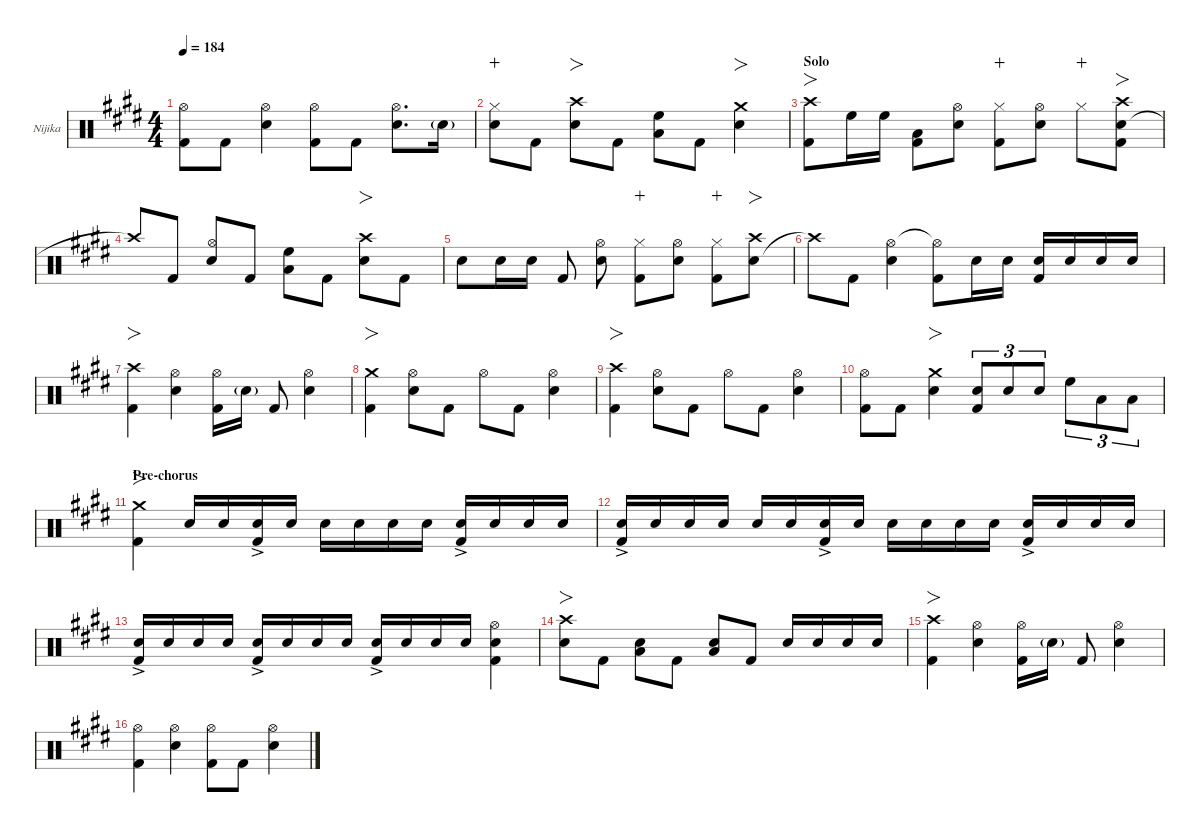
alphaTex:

\defaultSystemsLayout 4
\hideDynamics
\bracketExtendMode nobrackets
\firstSystemTrackNameOrientation horizontal
\track ("Nijika" "Nijika") {defaultSystemsLayout 4 instrument percussion}
\staff {score}
\articulation defaults
\ts (4 4)
\tempo 184
\clef neutral
\ks e
("Hi-Hat (open)"{acc forcenatural} "Kick (hit) 2"{acc forcenatural}).8{dy f beam Down} "Kick (hit) 2"{acc forcenatural}.8{beam Down} ("Hi-Hat (open)"{acc forcenatural} "Snare (hit) 2"{acc forcenatural}).4{beam Down} ("Hi-Hat (open)"{acc forcenatural} "Kick (hit) 2"{acc forcenatural}).8{beam Down} "Kick (hit) 2"{acc forcenatural}.8{beam Down} ("Hi-Hat (open)"{acc forcenatural} "Snare (hit) 2"{acc forcenatural}).8{d beam Down} "Snare (hit) 2"{g acc forcenatural}.16{dy mf beam Down} |
("Hi-Hat (closed)"{acc forcenatural} "Snare (hit) 2"{acc forcenatural}).8{dy f wahc beam Down} "Kick (hit) 2"{acc forcenatural}.8{beam Down} ("Snare (hit) 2"{acc forcenatural} "Crash high (hit)"{acc forcenatural}).8{fo beam Down} "Kick (hit) 2"{acc forcenatural}.8{beam Down} ("High Floor Tom (hit)"{acc forcenatural} "Low Tom (hit)"{acc forcenatural}).8{beam Down} "Kick (hit) 2"{acc forcenatural}.8{beam Down} ("Snare (hit) 2"{acc forcenatural} "Crash medium (hit)"{acc forcenatural}).4{fo beam Down} |
\section ("" "Solo")
("Crash high (hit)"{acc forcenatural} "Kick (hit) 2"{acc forcenatural}).8{fo beam Down} "High Floor Tom (hit)"{acc forcenatural}.16{beam Down} "High Floor Tom (hit)"{acc forcenatural}.16{beam Down beam split} ("Low Tom (hit)"{acc forcenatural} "Kick (hit) 2"{acc forcenatural}).8{dy mf beam Down} ("Snare (hit) 2"{acc forcenatural} "Hi-Hat (open)"{acc forcenatural}).8{dy f beam Down} ("Hi-Hat (closed)"{acc forcenatural} "Kick (hit) 2"{acc forcenatural}).8{dy mp wahc beam Down} ("Hi-Hat (open)"{acc forcenatural} "Snare (hit) 2"{acc forcenatural}).8{dy f beam Down} "Hi-Hat (closed)"{acc forcenatural}.8{dy mp wahc beam Down} ("Snare (hit) 2"{acc forcenatural} "Crash high (hit)"{acc forcenatural} "Kick (hit) 2"{acc forcenatural}).8{fo dy f beam Down} |
"Crash high (hit)"{t acc forcenatural}.8{beam Up} "Kick (hit) 2"{acc forcenatural}.8{beam Up} ("Hi-Hat (open)"{acc forcenatural} "Snare (hit) 2"{acc forcenatural}).8{beam Up} "Kick (hit) 2"{acc forcenatural}.8{beam Up} ("High Floor Tom (hit)"{acc forcenatural} "Low Tom (hit)"{acc forcenatural}).8{beam Down} "Kick (hit) 2"{acc forcenatural}.8{beam Down} ("Snare (hit) 2"{acc forcenatural} "Crash high (hit)"{acc forcenatural}).8{fo beam Down} "Kick (hit) 2"{acc forcenatural}.8{beam Down} |
"Snare (hit) 2"{acc forcenatural}.8{beam Down} "Snare (hit) 2"{acc forcenatural}.16{beam Down} "Snare (hit) 2"{acc forcenatural}.16{dy mf beam Down beam split} "Kick (hit) 2"{acc forcenatural}.8{dy f beam Up beam split} ("Snare (hit) 2"{acc forcenatural} "Hi-Hat (open)"{acc forcenatural}).8{beam Down} ("Hi-Hat (closed)"{acc forcenatural} "Kick (hit) 2"{acc forcenatural}).8{dy mp wahc beam Down} ("Hi-Hat (open)"{acc forcenatural} "Snare (hit) 2"{acc forcenatural}).8{dy f beam Down} ("Hi-Hat (closed)"{acc forcenatural} "Kick (hit) 2"{acc forcenatural}).8{dy mp wahc beam Down} ("Snare (hit) 2"{acc forcenatural} "Crash high (hit)"{acc forcenatural}).8{fo dy f beam Down} |
"Crash high (hit)"{t acc forcenatural}.8{beam Down} "Kick (hit) 2"{acc forcenatural}.8{beam Down} ("Hi-Hat (open)"{acc forcenatural} "Snare (hit) 2"{acc forcenatural}).4{beam Down} ("Hi-Hat (open)"{t acc forcenatural} "Kick (hit) 2"{acc forcenatural}).8{beam Down} "Snare (hit) 2"{acc forcenatural}.16{beam Down} "Snare (hit) 2"{acc forcenatural}.16{dy mf beam Down beam split} ("Snare (hit) 2"{acc forcenatural} "Kick (hit) 2"{acc forcenatural}).16{dy f beam Up} "Snare (hit) 2"{acc forcenatural}.16{dy mf beam Up} "Snare (hit) 2"{acc forcenatural}.16{dy f beam Up} "Snare (hit) 2"{acc forcenatural}.16{dy mf beam Up} |
("Crash high (hit)"{acc forcenatural} "Kick (hit) 2"{acc forcenatural}).4{fo dy f beam Down} ("Hi-Hat (open)"{acc forcenatural} "Snare (hit) 2"{acc forcenatural}).4{beam Down} ("Hi-Hat (open)"{acc forcenatural} "Kick (hit) 2"{acc forcenatural}).16{beam Down} "Snare (hit) 2"{g acc forcenatural}.16{dy mf beam Down beam split} "Kick (hit) 2"{acc forcenatural}.8{dy f beam Up} ("Hi-Hat (open)"{acc forcenatural} "Snare (hit) 2"{acc forcenatural}).4{beam Down} |
("Crash medium (hit)"{acc forcenatural} "Kick (hit) 2"{acc forcenatural}).4{fo beam Down} ("Hi-Hat (open)"{acc forcenatural} "Snare (hit) 2"{acc forcenatural}).8{beam Down} "Kick (hit) 2"{acc forcenatural}.8{beam Down} "Hi-Hat (open)"{acc forcenatural}.8{beam Down} "Kick (hit) 2"{acc forcenatural}.8{beam Down} ("Hi-Hat (open)"{acc forcenatural} "Snare (hit) 2"{acc forcenatural}).4{beam Down} |
("Crash high (hit)"{acc forcenatural} "Kick (hit) 2"{acc forcenatural}).4{fo beam Down} ("Hi-Hat (open)"{acc forcenatural} "Snare (hit) 2"{acc forcenatural}).8{beam Down} "Kick (hit) 2"{acc forcenatural}.8{beam Down} "Hi-Hat (open)"{acc forcenatural}.8{beam Down} "Kick (hit) 2"{acc forcenatural}.8{beam Down} ("Hi-Hat (open)"{acc forcenatural} "Snare (hit) 2"{acc forcenatural}).4{beam Down} |
("Hi-Hat (open)"{acc forcenatural} "Kick (hit) 2"{acc forcenatural}).8{beam Down} "Kick (hit) 2"{acc forcenatural}.8{beam Down} ("Crash medium (hit)"{acc forcenatural} "Snare (hit) 2"{acc forcenatural}).4{fo beam Down} ("Snare (hit) 2"{acc forcenatural} "Kick (hit) 2"{acc forcenatural}).8{tu (3 2) beam Up} "Snare (hit) 2"{acc forcenatural}.8{tu (3 2) dy mf beam Up} "Snare (hit) 2"{acc forcenatural}.8{tu (3 2) beam Up} "High Floor Tom (hit)"{acc forcenatural}.8{tu (3 2) dy f beam Down} "Low Tom (hit)"{acc forcenatural}.8{tu (3 2) beam Down} "Low Tom (hit)"{acc forcenatural}.8{tu (3 2) beam Down} |
\section ("" "Pre-chorus")
("Crash medium (hit)"{acc forcenatural} "Kick (hit) 2"{acc forcenatural}).4{fo beam Down} "Snare (hit) 2"{acc forcenatural}.16{dy p beam Up} "Snare (hit) 2"{acc forcenatural}.16{beam Up} ("Snare (hit) 2"{ac acc forcenatural} "Kick (hit) 2"{acc forcenatural}).16{dy f beam Up} "Snare (hit) 2"{acc forcenatural}.16{dy p beam Up} "Snare (hit) 2"{acc forcenatural}.16{beam Down} "Snare (hit) 2"{acc forcenatural}.16{beam Down} "Snare (hit) 2"{acc forcenatural}.16{beam Down} "Snare (hit) 2"{acc forcenatural}.16{beam Down beam split} ("Snare (hit) 2"{ac acc forcenatural} "Kick (hit) 2"{acc forcenatural}).16{dy f beam Up} "Snare (hit) 2"{acc forcenatural}.16{dy mp beam Up} "Snare (hit) 2"{acc forcenatural}.16{beam Up} "Snare (hit) 2"{acc forcenatural}.16{beam Up} |
("Snare (hit) 2"{ac acc forcenatural} "Kick (hit) 2"{acc forcenatural}).16{dy f beam Up} "Snare (hit) 2"{acc forcenatural}.16{dy p beam Up} "Snare (hit) 2"{acc forcenatural}.16{beam Up} "Snare (hit) 2"{acc forcenatural}.16{beam Up beam split} "Snare (hit) 2"{acc forcenatural}.16{beam Up} "Snare (hit) 2"{acc forcenatural}.16{beam Up} ("Snare (hit) 2"{ac acc forcenatural} "Kick (hit) 2"{acc forcenatural}).16{dy f beam Up} "Snare (hit) 2"{acc forcenatural}.16{dy p beam Up} "Snare (hit) 2"{acc forcenatural}.16{beam Down} "Snare (hit) 2"{acc forcenatural}.16{beam Down} "Snare (hit) 2"{acc forcenatural}.16{beam Down} "Snare (hit) 2"{acc forcenatural}.16{beam Down beam split} ("Snare (hit) 2"{ac acc forcenatural} "Kick (hit) 2"{acc forcenatural}).16{dy f beam Up} "Snare (hit) 2"{acc forcenatural}.16{dy mp beam Up} "Snare (hit) 2"{acc forcenatural}.16{beam Up} "Snare (hit) 2"{acc forcenatural}.16{beam Up} |
("Snare (hit) 2"{ac acc forcenatural} "Kick (hit) 2"{acc forcenatural}).16{dy f beam Up} "Snare (hit) 2"{acc forcenatural}.16{dy p beam Up} "Snare (hit) 2"{acc forcenatural}.16{beam Up} "Snare (hit) 2"{acc forcenatural}.16{beam Up beam split} ("Snare (hit) 2"{ac acc forcenatural} "Kick (hit) 2"{acc forcenatural}).16{dy mf beam Up} "Snare (hit) 2"{acc forcenatural}.16{dy p beam Up} "Snare (hit) 2"{acc forcenatural}.16{beam Up} "Snare (hit) 2"{acc forcenatural}.16{beam Up beam split} ("Snare (hit) 2"{ac acc forcenatural} "Kick (hit) 2"{acc forcenatural}).16{dy mf beam Up} "Snare (hit) 2"{acc forcenatural}.16{dy p beam Up} "Snare (hit) 2"{acc forcenatural}.16{beam Up} "Snare (hit) 2"{acc forcenatural}.16{beam Up beam split} ("Hi-Hat (open)"{acc forcenatural} "Snare (hit) 2"{acc forcenatural} "Kick (hit) 2"{acc forcenatural}).4{dy f beam Down} |
("Snare (hit) 2"{acc forcenatural} "Crash high (hit)"{acc forcenatural}).8{fo beam Down} "Kick (hit) 2"{acc forcenatural}.8{beam Down} ("Snare (hit) 2"{acc forcenatural} "Low Tom (hit)"{acc forcenatural}).8{beam Down} "Kick (hit) 2"{acc forcenatural}.8{beam Down} ("Snare (hit) 2"{acc forcenatural} "Low Tom (hit)"{acc forcenatural}).8{beam Up} "Kick (hit) 2"{acc forcenatural}.8{beam Up} "Snare (hit) 2"{acc forcenatural}.16{beam Up} "Snare (hit) 2"{acc forcenatural}.16{dy mf beam Up} "Snare (hit) 2"{acc forcenatural}.16{dy f beam Up} "Snare (hit) 2"{acc forcenatural}.16{dy mf beam Up} |
("Crash high (hit)"{acc forcenatural} "Kick (hit) 2"{acc forcenatural}).4{fo dy f beam Down} ("Hi-Hat (open)"{acc forcenatural} "Snare (hit) 2"{acc forcenatural}).4{beam Down} ("Hi-Hat (open)"{acc forcenatural} "Kick (hit) 2"{acc forcenatural}).16{beam Down} "Snare (hit) 2"{g acc forcenatural}.16{dy mf beam Down beam split} "Kick (hit) 2"{acc forcenatural}.8{dy f beam Up} ("Hi-Hat (open)"{acc forcenatural} "Snare (hit) 2"{acc forcenatural}).4{beam Down} |
("Hi-Hat (open)"{acc forcenatural} "Kick (hit) 2"{acc forcenatural}).4{beam Down} ("Hi-Hat (open)"{acc forcenatural} "Snare (hit) 2"{acc forcenatural}).4{beam Down} ("Hi-Hat (open)"{acc forcenatural} "Kick (hit) 2"{acc forcenatural}).8{beam Down} "Kick (hit) 2"{acc forcenatural}.8{beam Down} ("Hi-Hat (open)"{acc forcenatural} "Snare (hit) 2"{acc forcenatural}).4{beam Down}
